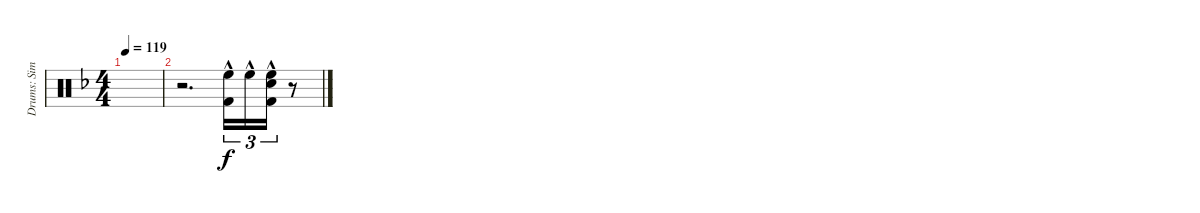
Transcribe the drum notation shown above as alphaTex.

\track ("Drums: Simon" "Drums: Sim") {instrument percussion}
\staff {score}
\articulation defaults
\ts (4 4)
\tempo 119
\clef neutral
\ks f
|
r.2{d} ("High Floor Tom (hit)"{hac} "Kick (hit) 2"{hac}).16{tu (3 2)} "High Floor Tom (hit)"{hac}.16{tu (3 2)} ("High Floor Tom (hit)"{hac} "Snare (hit) 2"{hac} "Kick (hit) 2"{hac}).16{tu (3 2)} r.8
